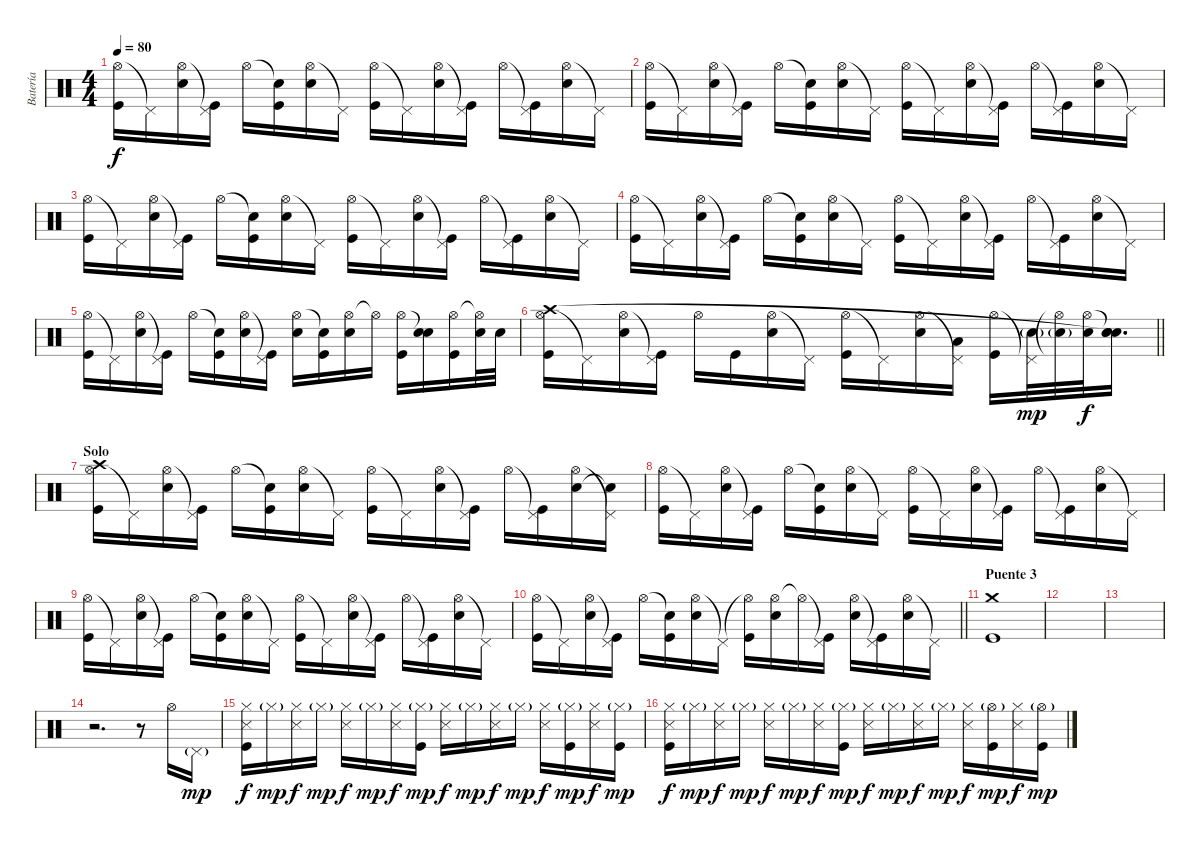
\track ("Batería" "Batería") {instrument percussion}
\staff {score}
\articulation defaults
\ts (4 4)
\tempo 80
\clef neutral
\ks c
("Hi-Hat (open)" "Kick (hit)").16{dy f} "Pedal Hi-Hat (hit)"{t}.16 ("Hi-Hat (open)" "Electric Snare (hit)").16 ("Pedal Hi-Hat (hit)"{t} "Kick (hit)").16 "Hi-Hat (open)".16 ("Snare (hit)"{t} "Kick (hit)").16 ("Hi-Hat (open)" "Electric Snare (hit)").16 "Pedal Hi-Hat (hit)"{t}.16 ("Hi-Hat (open)" "Kick (hit)").16 "Pedal Hi-Hat (hit)"{t}.16 ("Hi-Hat (open)" "Electric Snare (hit)").16 ("Pedal Hi-Hat (hit)"{t} "Kick (hit)").16 "Hi-Hat (open)".16 ("Pedal Hi-Hat (hit)"{t} "Kick (hit)").16 ("Hi-Hat (open)" "Electric Snare (hit)").16 "Pedal Hi-Hat (hit)"{t}.16 |
("Hi-Hat (open)" "Kick (hit)").16 "Pedal Hi-Hat (hit)"{t}.16 ("Hi-Hat (open)" "Electric Snare (hit)").16 ("Pedal Hi-Hat (hit)"{t} "Kick (hit)").16 "Hi-Hat (open)".16 ("Snare (hit)"{t} "Kick (hit)").16 ("Hi-Hat (open)" "Electric Snare (hit)").16 "Pedal Hi-Hat (hit)"{t}.16 ("Hi-Hat (open)" "Kick (hit)").16 "Pedal Hi-Hat (hit)"{t}.16 ("Hi-Hat (open)" "Electric Snare (hit)").16 ("Pedal Hi-Hat (hit)"{t} "Kick (hit)").16 "Hi-Hat (open)".16 ("Pedal Hi-Hat (hit)"{t} "Kick (hit)").16 ("Hi-Hat (open)" "Electric Snare (hit)").16 "Pedal Hi-Hat (hit)"{t}.16 |
("Hi-Hat (open)" "Kick (hit)").16 "Pedal Hi-Hat (hit)"{t}.16 ("Hi-Hat (open)" "Electric Snare (hit)").16 ("Pedal Hi-Hat (hit)"{t} "Kick (hit)").16 "Hi-Hat (open)".16 ("Snare (hit)"{t} "Kick (hit)").16 ("Hi-Hat (open)" "Electric Snare (hit)").16 "Pedal Hi-Hat (hit)"{t}.16 ("Hi-Hat (open)" "Kick (hit)").16 "Pedal Hi-Hat (hit)"{t}.16 ("Hi-Hat (open)" "Electric Snare (hit)").16 ("Pedal Hi-Hat (hit)"{t} "Kick (hit)").16 "Hi-Hat (open)".16 ("Pedal Hi-Hat (hit)"{t} "Kick (hit)").16 ("Hi-Hat (open)" "Electric Snare (hit)").16 "Pedal Hi-Hat (hit)"{t}.16 |
("Hi-Hat (open)" "Kick (hit)").16 "Pedal Hi-Hat (hit)"{t}.16 ("Hi-Hat (open)" "Electric Snare (hit)").16 ("Pedal Hi-Hat (hit)"{t} "Kick (hit)").16 "Hi-Hat (open)".16 ("Snare (hit)"{t} "Kick (hit)").16 ("Hi-Hat (open)" "Electric Snare (hit)").16 "Pedal Hi-Hat (hit)"{t}.16 ("Hi-Hat (open)" "Kick (hit)").16 "Pedal Hi-Hat (hit)"{t}.16 ("Hi-Hat (open)" "Electric Snare (hit)").16 ("Pedal Hi-Hat (hit)"{t} "Kick (hit)").16 "Hi-Hat (open)".16 ("Pedal Hi-Hat (hit)"{t} "Kick (hit)").16 ("Hi-Hat (open)" "Electric Snare (hit)").16 "Pedal Hi-Hat (hit)"{t}.16 |
("Hi-Hat (open)" "Kick (hit)").16 "Pedal Hi-Hat (hit)"{t}.16 ("Hi-Hat (open)" "Electric Snare (hit)").16 ("Pedal Hi-Hat (hit)"{t} "Kick (hit)").16 "Hi-Hat (open)".16 ("Snare (hit)"{t} "Kick (hit)").16 ("Hi-Hat (open)" "Electric Snare (hit)").16 ("Pedal Hi-Hat (hit)"{t} "Kick (hit)").16 ("Hi-Hat (open)" "Electric Snare (hit)").16 ("Snare (hit)"{t} "Kick (hit)").16 ("Hi-Hat (open)" "Electric Snare (hit)").16 "Hi-Hat (open)"{t}.16 ("Hi-Hat (open)" "Kick (hit)").16 ("Snare (hit)"{t} "Electric Snare (hit)").16 ("Hi-Hat (open)" "Kick (hit)").16 ("Hi-Hat (open)"{t} "Electric Snare (hit)").32 "Electric Snare (hit)".32 |
\barLineRight lightlight
("Hi-Hat (open)" "Kick (hit)" "Crash high (hit)").16 "Pedal Hi-Hat (hit)"{t}.16 ("Hi-Hat (open)" "Electric Snare (hit)").16 ("Pedal Hi-Hat (hit)"{t} "Kick (hit)").16 "Hi-Hat (open)".16 "Kick (hit)".16 ("Hi-Hat (open)" "Electric Snare (hit)").16 "Pedal Hi-Hat (hit)"{t}.16 ("Hi-Hat (open)" "Kick (hit)").16 "Pedal Hi-Hat (hit)"{t}.16 ("Hi-Hat (open)" "Electric Snare (hit)").16 ("Pedal Hi-Hat (hit)"{t} "Low Tom (hit)").16 ("Hi-Hat (open)" "Kick (hit)").16 ("Pedal Hi-Hat (hit)"{t} "Electric Snare (hit)"{g}).32{dy mp} ("Hi-Hat (open)"{t} "Electric Snare (hit)"{g}).32 ("Hi-Hat (open)" "Electric Snare (hit)").32{dy f} ("Snare (hit)"{t} "Electric Snare (hit)" "Snare (hit)"{t}).16{d} |
\section ("" "Solo")
("Hi-Hat (open)" "Kick (hit)" "Crash high (hit)").16 "Pedal Hi-Hat (hit)"{t}.16 ("Hi-Hat (open)" "Electric Snare (hit)").16 ("Pedal Hi-Hat (hit)"{t} "Kick (hit)").16 "Hi-Hat (open)".16 ("Snare (hit)"{t} "Kick (hit)").16 ("Hi-Hat (open)" "Electric Snare (hit)").16 "Pedal Hi-Hat (hit)"{t}.16 ("Hi-Hat (open)" "Kick (hit)").16 "Pedal Hi-Hat (hit)"{t}.16 ("Hi-Hat (open)" "Electric Snare (hit)").16 ("Pedal Hi-Hat (hit)"{t} "Kick (hit)").16 "Hi-Hat (open)".16 ("Pedal Hi-Hat (hit)"{t} "Kick (hit)").16 ("Hi-Hat (open)" "Electric Snare (hit)").16 ("Pedal Hi-Hat (hit)"{t} "Snare (hit)"{t}).16 |
("Hi-Hat (open)" "Kick (hit)").16 "Pedal Hi-Hat (hit)"{t}.16 ("Hi-Hat (open)" "Electric Snare (hit)").16 ("Pedal Hi-Hat (hit)"{t} "Kick (hit)").16 "Hi-Hat (open)".16 ("Snare (hit)"{t} "Kick (hit)").16 ("Hi-Hat (open)" "Electric Snare (hit)").16 "Pedal Hi-Hat (hit)"{t}.16 ("Hi-Hat (open)" "Kick (hit)").16 "Pedal Hi-Hat (hit)"{t}.16 ("Hi-Hat (open)" "Electric Snare (hit)").16 ("Pedal Hi-Hat (hit)"{t} "Kick (hit)").16 "Hi-Hat (open)".16 ("Pedal Hi-Hat (hit)"{t} "Kick (hit)").16 ("Hi-Hat (open)" "Electric Snare (hit)").16 "Pedal Hi-Hat (hit)"{t}.16 |
("Hi-Hat (open)" "Kick (hit)").16 "Pedal Hi-Hat (hit)"{t}.16 ("Hi-Hat (open)" "Electric Snare (hit)").16 ("Pedal Hi-Hat (hit)"{t} "Kick (hit)").16 "Hi-Hat (open)".16 ("Snare (hit)"{t} "Kick (hit)").16 ("Hi-Hat (open)" "Electric Snare (hit)").16 "Pedal Hi-Hat (hit)"{t}.16 ("Hi-Hat (open)" "Kick (hit)").16 "Pedal Hi-Hat (hit)"{t}.16 ("Hi-Hat (open)" "Electric Snare (hit)").16 ("Pedal Hi-Hat (hit)"{t} "Kick (hit)").16 "Hi-Hat (open)".16 ("Pedal Hi-Hat (hit)"{t} "Kick (hit)").16 ("Hi-Hat (open)" "Electric Snare (hit)").16 "Pedal Hi-Hat (hit)"{t}.16 |
\barLineRight lightlight
("Hi-Hat (open)" "Kick (hit)").16 "Pedal Hi-Hat (hit)"{t}.16 ("Hi-Hat (open)" "Electric Snare (hit)").16 ("Pedal Hi-Hat (hit)"{t} "Kick (hit)").16 "Hi-Hat (open)".16 ("Snare (hit)"{t} "Kick (hit)").16 ("Hi-Hat (open)" "Electric Snare (hit)").16 "Pedal Hi-Hat (hit)"{t}.16 ("Hi-Hat (open)"{t} "Kick (hit)").16 ("Hi-Hat (open)" "Electric Snare (hit)").16 "Hi-Hat (open)"{t}.16 ("Pedal Hi-Hat (hit)"{t} "Kick (hit)").16 ("Hi-Hat (open)" "Electric Snare (hit)").16 ("Pedal Hi-Hat (hit)"{t} "Kick (hit)").16 ("Hi-Hat (open)" "Electric Snare (hit)").16 "Pedal Hi-Hat (hit)"{t}.16 |
\section ("" "Puente 3")
("Kick (hit)" "Crash medium (hit)").1 |
|
|
r.2{d} r.8 "Hi-Hat (open)".16 "Pedal Hi-Hat (hit)"{g}.16{dy mp} |
("Hi-Hat (closed)" "Kick (hit)" "Snare (side stick) 3").16{dy f} "Hi-Hat (closed)"{g}.16{dy mp} ("Hi-Hat (closed)" "Snare (side stick) 3").16{dy f} "Hi-Hat (closed)"{g}.16{dy mp} ("Hi-Hat (closed)" "Snare (side stick) 3").16{dy f} "Hi-Hat (closed)"{g}.16{dy mp} ("Hi-Hat (closed)" "Snare (side stick) 3").16{dy f} ("Hi-Hat (closed)"{g} "Kick (hit)").16{dy mp} ("Hi-Hat (closed)" "Snare (side stick) 3").16{dy f} "Hi-Hat (closed)"{g}.16{dy mp} ("Hi-Hat (closed)" "Snare (side stick) 3").16{dy f} "Hi-Hat (closed)"{g}.16{dy mp} ("Hi-Hat (closed)" "Snare (side stick) 3").16{dy f} ("Hi-Hat (closed)"{g} "Kick (hit)").16{dy mp} ("Hi-Hat (closed)" "Snare (side stick) 3").16{dy f} ("Hi-Hat (closed)"{g} "Kick (hit)").16{dy mp} |
("Hi-Hat (closed)" "Kick (hit)" "Snare (side stick) 3").16{dy f} "Hi-Hat (closed)"{g}.16{dy mp} ("Hi-Hat (closed)" "Snare (side stick) 3").16{dy f} "Hi-Hat (closed)"{g}.16{dy mp} ("Hi-Hat (closed)" "Snare (side stick) 3").16{dy f} "Hi-Hat (closed)"{g}.16{dy mp} ("Hi-Hat (closed)" "Snare (side stick) 3").16{dy f} ("Hi-Hat (closed)"{g} "Kick (hit)").16{dy mp} ("Hi-Hat (closed)" "Snare (side stick) 3").16{dy f} "Hi-Hat (closed)"{g}.16{dy mp} ("Hi-Hat (closed)" "Snare (side stick) 3").16{dy f} "Hi-Hat (closed)"{g}.16{dy mp} ("Hi-Hat (closed)" "Snare (side stick) 3").16{dy f} ("Hi-Hat (open)"{g} "Kick (hit)").16{dy mp} ("Hi-Hat (closed)" "Snare (side stick) 3").16{dy f} ("Hi-Hat (open)"{g} "Kick (hit)").16{dy mp}
